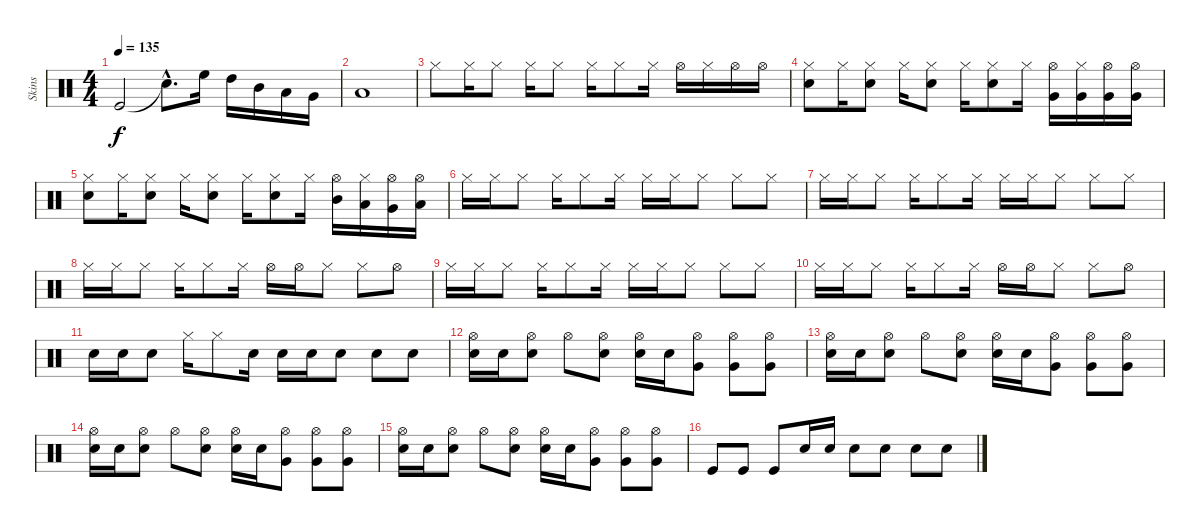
\track ("Skins" "Skins") {instrument percussion}
\staff {score}
\articulation defaults
\ts (4 4)
\tempo 135
\clef neutral
\ks c "Kick (hit)".2{dy f} "Snare (hit)"{hac t}.8{d} "High Floor Tom (hit)".16 "High Tom (hit)".16 "Mid Tom (hit)".16 "Low Tom (hit)".16 "Very Low Tom (hit)".16
|
"Low Floor Tom (hit)".1 |
"Hi-Hat (closed)".8 "Hi-Hat (closed)".16 "Hi-Hat (closed)".8 "Hi-Hat (closed)".16 "Hi-Hat (closed)".8 "Hi-Hat (closed)".16 "Hi-Hat (closed)".8 "Hi-Hat (closed)".16 "Hi-Hat (open)".16 "Hi-Hat (closed)".16 "Hi-Hat (open)".16 "Hi-Hat (open)".16 |
("Hi-Hat (closed)" "Electric Snare (hit)").8 "Hi-Hat (closed)".16 ("Hi-Hat (closed)" "Electric Snare (hit)").8 "Hi-Hat (closed)".16 ("Hi-Hat (closed)" "Electric Snare (hit)").8 "Hi-Hat (closed)".16 ("Hi-Hat (closed)" "Electric Snare (hit)").8 "Hi-Hat (closed)".16 ("Hi-Hat (open)" "Very Low Tom (hit)").16 ("Hi-Hat (closed)" "Very Low Tom (hit)").16 ("Hi-Hat (open)" "Very Low Tom (hit)").16 ("Hi-Hat (open)" "Very Low Tom (hit)").16 |
("Hi-Hat (closed)" "Electric Snare (hit)").8 "Hi-Hat (closed)".16 ("Hi-Hat (closed)" "Electric Snare (hit)").8 "Hi-Hat (closed)".16 ("Hi-Hat (closed)" "Electric Snare (hit)").8 "Hi-Hat (closed)".16 ("Hi-Hat (closed)" "Electric Snare (hit)").8 "Hi-Hat (closed)".16 ("Hi-Hat (open)" "Mid Tom (hit)").16 ("Hi-Hat (closed)" "Low Tom (hit)").16 ("Hi-Hat (open)" "Very Low Tom (hit)").16 ("Hi-Hat (open)" "Low Floor Tom (hit)").16 |
"Hi-Hat (closed)".16 "Hi-Hat (closed)".16 "Hi-Hat (closed)".8 "Hi-Hat (closed)".16 "Hi-Hat (closed)".8 "Hi-Hat (closed)".16 "Hi-Hat (closed)".16 "Hi-Hat (closed)".16 "Hi-Hat (closed)".8 "Hi-Hat (closed)".8 "Hi-Hat (closed)".8 |
"Hi-Hat (closed)".16 "Hi-Hat (closed)".16 "Hi-Hat (closed)".8 "Hi-Hat (closed)".16 "Hi-Hat (closed)".8 "Hi-Hat (closed)".16 "Hi-Hat (closed)".16 "Hi-Hat (closed)".16 "Hi-Hat (closed)".8 "Hi-Hat (closed)".8 "Hi-Hat (closed)".8 |
"Hi-Hat (closed)".16 "Hi-Hat (closed)".16 "Hi-Hat (closed)".8 "Hi-Hat (closed)".16 "Hi-Hat (closed)".8 "Hi-Hat (closed)".16 "Hi-Hat (open)".16 "Hi-Hat (open)".16 "Hi-Hat (closed)".8 "Hi-Hat (closed)".8 "Hi-Hat (open)".8 |
"Hi-Hat (closed)".16 "Hi-Hat (closed)".16 "Hi-Hat (closed)".8 "Hi-Hat (closed)".16 "Hi-Hat (closed)".8 "Hi-Hat (closed)".16 "Hi-Hat (closed)".16 "Hi-Hat (closed)".16 "Hi-Hat (closed)".8 "Hi-Hat (closed)".8 "Hi-Hat (closed)".8 |
"Hi-Hat (closed)".16 "Hi-Hat (closed)".16 "Hi-Hat (closed)".8 "Hi-Hat (closed)".16 "Hi-Hat (closed)".8 "Hi-Hat (closed)".16 "Hi-Hat (open)".16 "Hi-Hat (open)".16 "Hi-Hat (closed)".8 "Hi-Hat (closed)".8 "Hi-Hat (open)".8 |
"Electric Snare (hit)".16 "Electric Snare (hit)".16 "Electric Snare (hit)".8 "Hi-Hat (closed)".16 "Hi-Hat (closed)".8 "Electric Snare (hit)".16 "Electric Snare (hit)".16 "Electric Snare (hit)".16 "Electric Snare (hit)".8 "Electric Snare (hit)".8 "Electric Snare (hit)".8 |
("Hi-Hat (open)" "Electric Snare (hit)").16 "Electric Snare (hit)".16 ("Hi-Hat (open)" "Electric Snare (hit)").8 "Hi-Hat (open)".8 ("Hi-Hat (open)" "Electric Snare (hit)").8 ("Hi-Hat (open)" "Electric Snare (hit)").16 "Electric Snare (hit)".16 ("Hi-Hat (open)" "Very Low Tom (hit)").8 ("Hi-Hat (open)" "Very Low Tom (hit)").8 ("Hi-Hat (open)" "Very Low Tom (hit)").8 |
("Hi-Hat (open)" "Electric Snare (hit)").16 "Electric Snare (hit)".16 ("Hi-Hat (open)" "Electric Snare (hit)").8 "Hi-Hat (open)".8 ("Hi-Hat (open)" "Electric Snare (hit)").8 ("Hi-Hat (open)" "Electric Snare (hit)").16 "Electric Snare (hit)".16 ("Hi-Hat (open)" "Very Low Tom (hit)").8 ("Hi-Hat (open)" "Very Low Tom (hit)").8 ("Hi-Hat (open)" "Very Low Tom (hit)").8 |
("Hi-Hat (open)" "Electric Snare (hit)").16 "Electric Snare (hit)".16 ("Hi-Hat (open)" "Electric Snare (hit)").8 "Hi-Hat (open)".8 ("Hi-Hat (open)" "Electric Snare (hit)").8 ("Hi-Hat (open)" "Electric Snare (hit)").16 "Electric Snare (hit)".16 ("Hi-Hat (open)" "Very Low Tom (hit)").8 ("Hi-Hat (open)" "Very Low Tom (hit)").8 ("Hi-Hat (open)" "Very Low Tom (hit)").8 |
("Hi-Hat (open)" "Electric Snare (hit)").16 "Electric Snare (hit)".16 ("Hi-Hat (open)" "Electric Snare (hit)").8 "Hi-Hat (open)".8 ("Hi-Hat (open)" "Electric Snare (hit)").8 ("Hi-Hat (open)" "Electric Snare (hit)").16 "Electric Snare (hit)".16 ("Hi-Hat (open)" "Very Low Tom (hit)").8 ("Hi-Hat (open)" "Very Low Tom (hit)").8 ("Hi-Hat (open)" "Very Low Tom (hit)").8 |
"Kick (hit)".8 "Kick (hit)".8 "Kick (hit)".8 "Electric Snare (hit)".16 "Electric Snare (hit)".16 "Electric Snare (hit)".8 "Electric Snare (hit)".8 "Electric Snare (hit)".8 "Electric Snare (hit)".8
